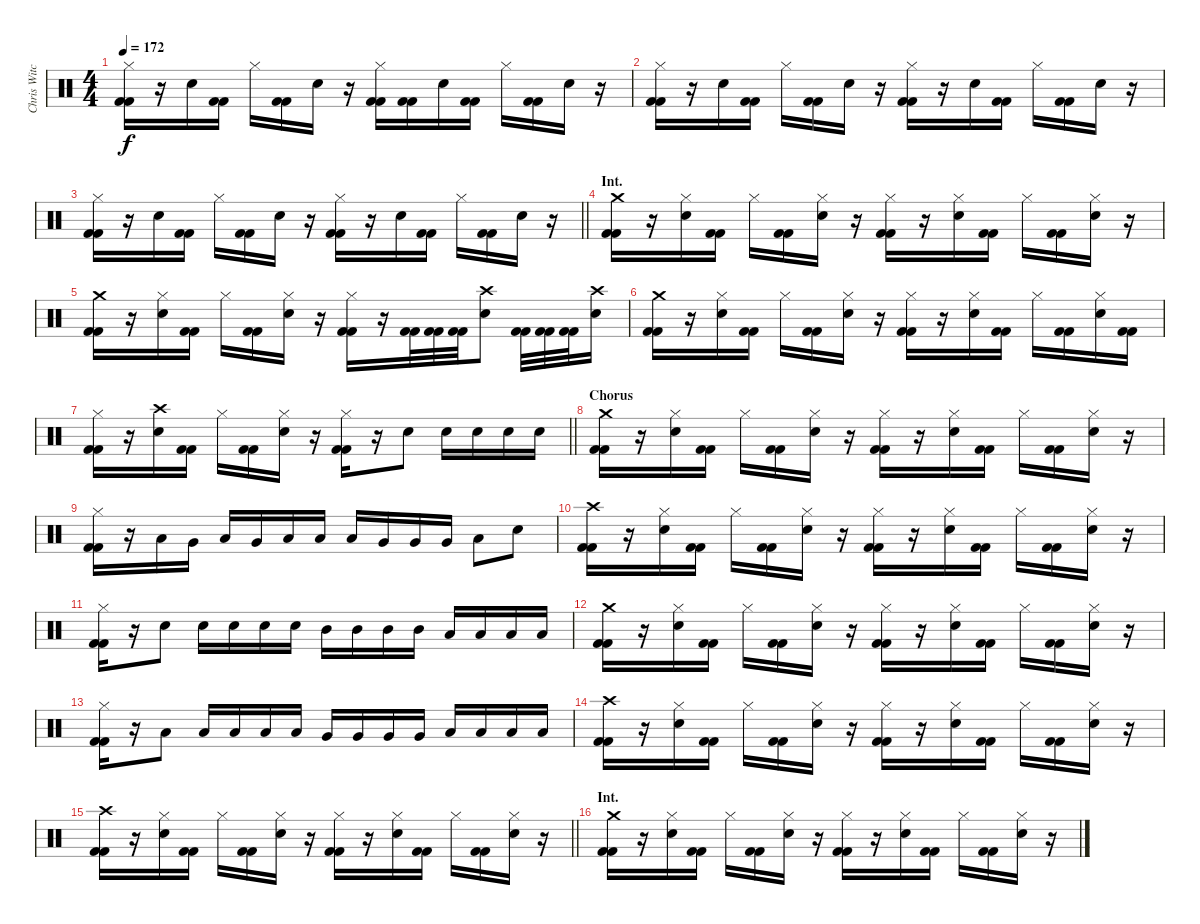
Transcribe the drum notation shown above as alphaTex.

\track ("Chris Witchhunter" "Chris Witc") {instrument percussion}
\staff {score}
\articulation defaults
\ts (4 4)
\tempo 172
\clef neutral
\ks c
("Kick (hit) 2" "Kick (hit) 2" "Hi-Hat (closed)").16{dy f} r.16 "Snare (hit) 2".16 ("Kick (hit) 2" "Kick (hit) 2").16 "Hi-Hat (closed)".16 ("Kick (hit) 2" "Kick (hit) 2").16 "Snare (hit) 2".16 r.16 ("Kick (hit) 2" "Kick (hit) 2" "Hi-Hat (closed)").16 ("Kick (hit) 2" "Kick (hit) 2").16 "Snare (hit) 2".16 ("Kick (hit) 2" "Kick (hit) 2").16 "Hi-Hat (closed)".16 ("Kick (hit) 2" "Kick (hit) 2").16 "Snare (hit) 2".16 r.16 |
("Kick (hit) 2" "Kick (hit) 2" "Hi-Hat (closed)").16 r.16 "Snare (hit) 2".16 ("Kick (hit) 2" "Kick (hit) 2").16 "Hi-Hat (closed)".16 ("Kick (hit) 2" "Kick (hit) 2").16 "Snare (hit) 2".16 r.16 ("Kick (hit) 2" "Kick (hit) 2" "Hi-Hat (closed)").16 r.16 "Snare (hit) 2".16 ("Kick (hit) 2" "Kick (hit) 2").16 "Hi-Hat (closed)".16 ("Kick (hit) 2" "Kick (hit) 2").16 "Snare (hit) 2".16 r.16 |
\barLineRight lightlight
("Kick (hit) 2" "Kick (hit) 2" "Hi-Hat (closed)").16 r.16 "Snare (hit) 2".16 ("Kick (hit) 2" "Kick (hit) 2").16 "Hi-Hat (closed)".16 ("Kick (hit) 2" "Kick (hit) 2").16 "Snare (hit) 2".16 r.16 ("Kick (hit) 2" "Kick (hit) 2" "Hi-Hat (closed)").16 r.16 "Snare (hit) 2".16 ("Kick (hit) 2" "Kick (hit) 2").16 "Hi-Hat (closed)".16 ("Kick (hit) 2" "Kick (hit) 2").16 "Snare (hit) 2".16 r.16 |
\section ("" "Int.")
("Kick (hit) 2" "Kick (hit) 2" "Crash medium (hit)").16 r.16 ("Snare (hit) 2" "Hi-Hat (closed)").16 ("Kick (hit) 2" "Kick (hit) 2").16 "Hi-Hat (closed)".16 ("Kick (hit) 2" "Kick (hit) 2").16 ("Snare (hit) 2" "Hi-Hat (closed)").16 r.16 ("Kick (hit) 2" "Kick (hit) 2" "Hi-Hat (closed)").16 r.16 ("Snare (hit) 2" "Hi-Hat (closed)").16 ("Kick (hit) 2" "Kick (hit) 2").16 "Hi-Hat (closed)".16 ("Kick (hit) 2" "Kick (hit) 2").16 ("Snare (hit) 2" "Hi-Hat (closed)").16 r.16 |
("Kick (hit) 2" "Kick (hit) 2" "Crash medium (hit)").16 r.16 ("Snare (hit) 2" "Hi-Hat (closed)").16 ("Kick (hit) 2" "Kick (hit) 2").16 "Hi-Hat (closed)".16 ("Kick (hit) 2" "Kick (hit) 2").16 ("Snare (hit) 2" "Hi-Hat (closed)").16 r.16 ("Kick (hit) 2" "Kick (hit) 2" "Hi-Hat (closed)").16 r.16 ("Kick (hit) 2" "Kick (hit) 2").32 ("Kick (hit) 2" "Kick (hit) 2").32 ("Kick (hit) 2" "Kick (hit) 2").32 ("Crash high (hit)" "Snare (hit) 2").8 ("Kick (hit) 2" "Kick (hit) 2").32 ("Kick (hit) 2" "Kick (hit) 2").32 ("Kick (hit) 2" "Kick (hit) 2").32 ("Crash high (hit)" "Snare (hit) 2").16 |
("Kick (hit) 2" "Kick (hit) 2" "Crash medium (hit)").16 r.16 ("Snare (hit) 2" "Hi-Hat (closed)").16 ("Kick (hit) 2" "Kick (hit) 2").16 "Hi-Hat (closed)".16 ("Kick (hit) 2" "Kick (hit) 2").16 ("Snare (hit) 2" "Hi-Hat (closed)").16 r.16 ("Kick (hit) 2" "Kick (hit) 2" "Hi-Hat (closed)").16 r.16 ("Snare (hit) 2" "Hi-Hat (closed)").16 ("Kick (hit) 2" "Kick (hit) 2").16 "Hi-Hat (closed)".16 ("Kick (hit) 2" "Kick (hit) 2").16 ("Snare (hit) 2" "Hi-Hat (closed)").16 ("Kick (hit) 2" "Kick (hit) 2").16 |
\barLineRight lightlight
("Kick (hit) 2" "Kick (hit) 2" "Hi-Hat (closed)").16 r.16 ("Snare (hit) 2" "Crash high (hit)").16 ("Kick (hit) 2" "Kick (hit) 2").16 "Hi-Hat (closed)".16 ("Kick (hit) 2" "Kick (hit) 2").16 ("Snare (hit) 2" "Hi-Hat (closed)").16 r.16 ("Kick (hit) 2" "Kick (hit) 2" "Hi-Hat (closed)").16 r.16 "Snare (hit) 2".8 "Snare (hit) 2".16 "Snare (hit) 2".16 "Snare (hit) 2".16 "Snare (hit) 2".16 |
\section ("" "Chorus")
("Kick (hit) 2" "Kick (hit) 2" "Crash medium (hit)").16 r.16 ("Snare (hit) 2" "Hi-Hat (closed)").16 ("Kick (hit) 2" "Kick (hit) 2").16 "Hi-Hat (closed)".16 ("Kick (hit) 2" "Kick (hit) 2").16 ("Snare (hit) 2" "Hi-Hat (closed)").16 r.16 ("Kick (hit) 2" "Kick (hit) 2" "Hi-Hat (closed)").16 r.16 ("Snare (hit) 2" "Hi-Hat (closed)").16 ("Kick (hit) 2" "Kick (hit) 2").16 "Hi-Hat (closed)".16 ("Kick (hit) 2" "Kick (hit) 2").16 ("Snare (hit) 2" "Hi-Hat (closed)").16 r.16 |
("Kick (hit) 2" "Kick (hit) 2" "Hi-Hat (closed)").16 r.16 "Low Tom (hit)".16 "Very Low Tom (hit)".16 "Low Tom (hit)".16 "Very Low Tom (hit)".16 "Low Tom (hit)".16 "Low Tom (hit)".16 "Low Tom (hit)".16 "Very Low Tom (hit)".16 "Very Low Tom (hit)".16 "Very Low Tom (hit)".16 "Low Floor Tom (hit)".8 "Snare (hit) 2".8 |
("Kick (hit) 2" "Kick (hit) 2" "Crash high (hit)").16 r.16 ("Snare (hit) 2" "Hi-Hat (closed)").16 ("Kick (hit) 2" "Kick (hit) 2").16 "Hi-Hat (closed)".16 ("Kick (hit) 2" "Kick (hit) 2").16 ("Snare (hit) 2" "Hi-Hat (closed)").16 r.16 ("Kick (hit) 2" "Kick (hit) 2" "Hi-Hat (closed)").16 r.16 ("Snare (hit) 2" "Hi-Hat (closed)").16 ("Kick (hit) 2" "Kick (hit) 2").16 "Hi-Hat (closed)".16 ("Kick (hit) 2" "Kick (hit) 2").16 ("Snare (hit) 2" "Hi-Hat (closed)").16 r.16 |
("Kick (hit) 2" "Kick (hit) 2" "Hi-Hat (closed)").16 r.16 "Snare (hit) 2".8 "Snare (hit) 2".16 "Snare (hit) 2".16 "Snare (hit) 2".16 "Snare (hit) 2".16 "Mid Tom (hit)".16 "Mid Tom (hit)".16 "Mid Tom (hit)".16 "Mid Tom (hit)".16 "Low Tom (hit)".16 "Low Tom (hit)".16 "Low Tom (hit)".16 "Low Tom (hit)".16 |
("Kick (hit) 2" "Kick (hit) 2" "Crash medium (hit)").16 r.16 ("Snare (hit) 2" "Hi-Hat (closed)").16 ("Kick (hit) 2" "Kick (hit) 2").16 "Hi-Hat (closed)".16 ("Kick (hit) 2" "Kick (hit) 2").16 ("Snare (hit) 2" "Hi-Hat (closed)").16 r.16 ("Kick (hit) 2" "Kick (hit) 2" "Hi-Hat (closed)").16 r.16 ("Snare (hit) 2" "Hi-Hat (closed)").16 ("Kick (hit) 2" "Kick (hit) 2").16 "Hi-Hat (closed)".16 ("Kick (hit) 2" "Kick (hit) 2").16 ("Snare (hit) 2" "Hi-Hat (closed)").16 r.16 |
("Kick (hit) 2" "Kick (hit) 2" "Hi-Hat (closed)").16 r.16 "Low Tom (hit)".8 "Low Tom (hit)".16 "Low Tom (hit)".16 "Low Tom (hit)".16 "Low Tom (hit)".16 "Very Low Tom (hit)".16 "Very Low Tom (hit)".16 "Very Low Tom (hit)".16 "Very Low Tom (hit)".16 "Low Floor Tom (hit)".16 "Low Floor Tom (hit)".16 "Low Floor Tom (hit)".16 "Low Floor Tom (hit)".16 |
("Kick (hit) 2" "Kick (hit) 2" "Crash high (hit)").16 r.16 ("Snare (hit) 2" "Hi-Hat (closed)").16 ("Kick (hit) 2" "Kick (hit) 2").16 "Hi-Hat (closed)".16 ("Kick (hit) 2" "Kick (hit) 2").16 ("Snare (hit) 2" "Hi-Hat (closed)").16 r.16 ("Kick (hit) 2" "Kick (hit) 2" "Hi-Hat (closed)").16 r.16 ("Snare (hit) 2" "Hi-Hat (closed)").16 ("Kick (hit) 2" "Kick (hit) 2").16 "Hi-Hat (closed)".16 ("Kick (hit) 2" "Kick (hit) 2").16 ("Snare (hit) 2" "Hi-Hat (closed)").16 r.16 |
\barLineRight lightlight
("Kick (hit) 2" "Kick (hit) 2" "Crash high (hit)").16 r.16 ("Snare (hit) 2" "Hi-Hat (closed)").16 ("Kick (hit) 2" "Kick (hit) 2").16 "Hi-Hat (closed)".16 ("Kick (hit) 2" "Kick (hit) 2").16 ("Snare (hit) 2" "Hi-Hat (closed)").16 r.16 ("Kick (hit) 2" "Kick (hit) 2" "Hi-Hat (closed)").16 r.16 ("Snare (hit) 2" "Hi-Hat (closed)").16 ("Kick (hit) 2" "Kick (hit) 2").16 "Hi-Hat (closed)".16 ("Kick (hit) 2" "Kick (hit) 2").16 ("Snare (hit) 2" "Hi-Hat (closed)").16 r.16 |
\section ("" "Int.")
("Kick (hit) 2" "Kick (hit) 2" "Crash medium (hit)").16 r.16 ("Snare (hit) 2" "Hi-Hat (closed)").16 ("Kick (hit) 2" "Kick (hit) 2").16 "Hi-Hat (closed)".16 ("Kick (hit) 2" "Kick (hit) 2").16 ("Snare (hit) 2" "Hi-Hat (closed)").16 r.16 ("Kick (hit) 2" "Kick (hit) 2" "Hi-Hat (closed)").16 r.16 ("Snare (hit) 2" "Hi-Hat (closed)").16 ("Kick (hit) 2" "Kick (hit) 2").16 "Hi-Hat (closed)".16 ("Kick (hit) 2" "Kick (hit) 2").16 ("Snare (hit) 2" "Hi-Hat (closed)").16 r.16
